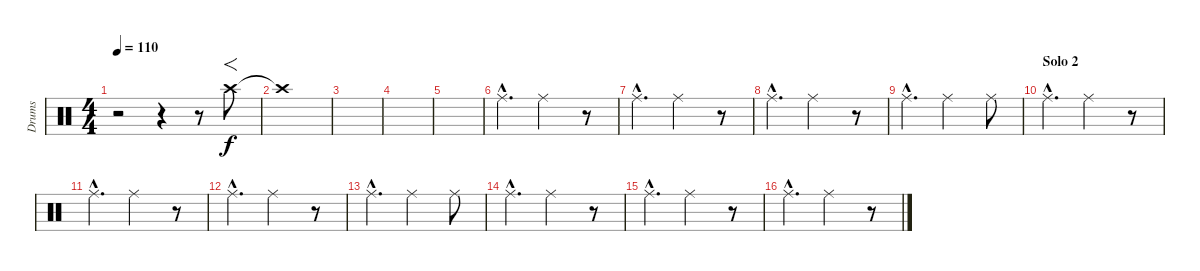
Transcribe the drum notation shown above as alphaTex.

\track ("Drums" "Drums") {instrument percussion}
\staff {score}
\articulation defaults
\ts (4 4)
\tempo 110
\clef neutral
\ks c
r.2{dy f} r.4 r.8 "Crash high (hit)".8{f} |
"Crash high (hit)"{t}.1 |
|
|
|
"Ride (middle)"{hac}.4{d} "Ride (middle)".2 r.8 |
"Ride (middle)"{hac}.4{d} "Ride (middle)".2 r.8 |
"Ride (middle)"{hac}.4{d} "Ride (middle)".2 r.8 |
"Ride (middle)"{hac}.4{d} "Ride (middle)".2 "Ride (middle)".8 |
\section ("" "Solo 2")
"Ride (middle)"{hac}.4{d} "Ride (middle)".2 r.8 |
"Ride (middle)"{hac}.4{d} "Ride (middle)".2 r.8 |
"Ride (middle)"{hac}.4{d} "Ride (middle)".2 r.8 |
"Ride (middle)"{hac}.4{d} "Ride (middle)".2 "Ride (middle)".8 |
"Ride (middle)"{hac}.4{d} "Ride (middle)".2 r.8 |
"Ride (middle)"{hac}.4{d} "Ride (middle)".2 r.8 |
"Ride (middle)"{hac}.4{d} "Ride (middle)".2 r.8
